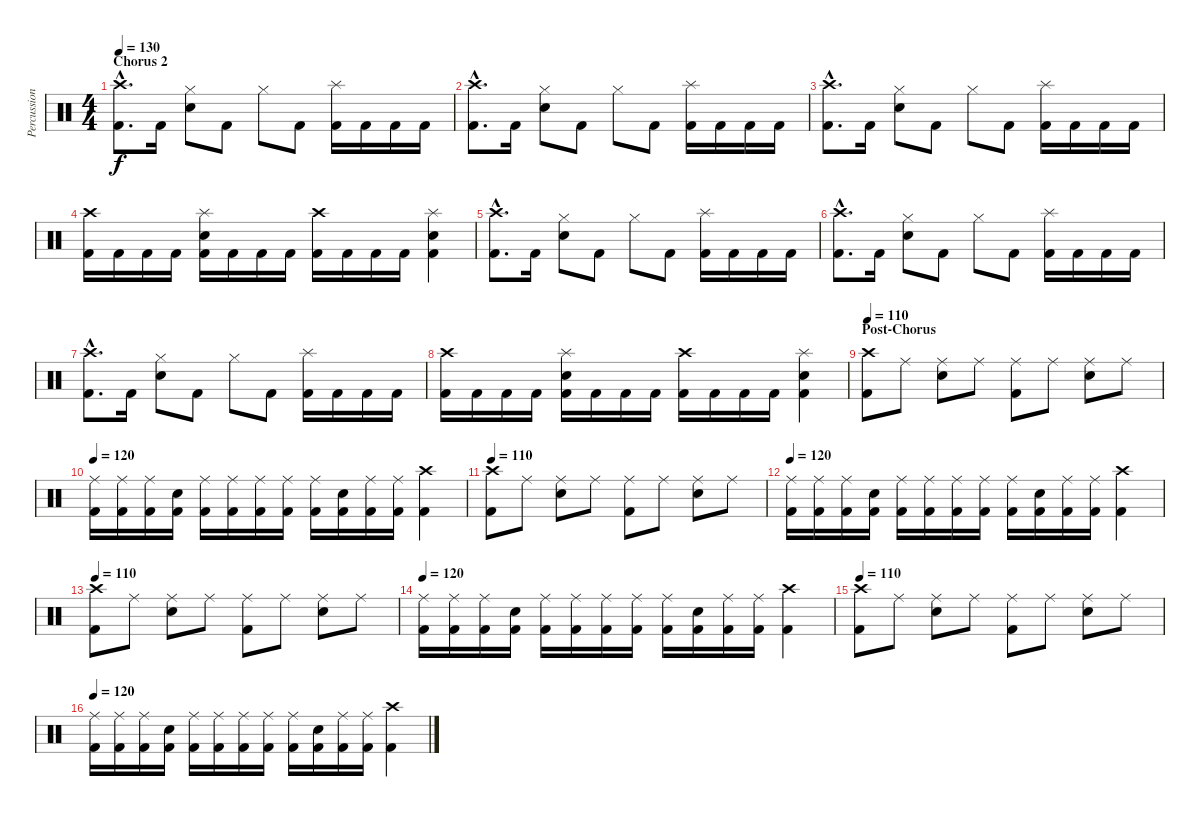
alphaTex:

\track ("Percussions" "Percussion") {instrument percussion}
\staff {score}
\articulation defaults
\ts (4 4)
\section ("" "Chorus 2")
\tempo 130
\clef neutral
\ks c
("Crash high (hit)"{hac} "Kick (hit) 2"{hac}).8{d dy f} "Kick (hit) 2".16 ("Hi-Hat (closed)" "Electric Snare (hit)").8 "Kick (hit) 2".8 "Hi-Hat (closed)".8 "Kick (hit) 2".8 ("Splash (hit)" "Kick (hit) 2").16 "Kick (hit) 2".16 "Kick (hit) 2".16 "Kick (hit) 2".16 |
("Crash high (hit)"{hac} "Kick (hit) 2"{hac}).8{d} "Kick (hit) 2".16 ("Hi-Hat (closed)" "Electric Snare (hit)").8 "Kick (hit) 2".8 "Hi-Hat (closed)".8 "Kick (hit) 2".8 ("Splash (hit)" "Kick (hit) 2").16 "Kick (hit) 2".16 "Kick (hit) 2".16 "Kick (hit) 2".16 |
("Crash high (hit)"{hac} "Kick (hit) 2"{hac}).8{d} "Kick (hit) 2".16 ("Hi-Hat (closed)" "Electric Snare (hit)").8 "Kick (hit) 2".8 "Hi-Hat (closed)".8 "Kick (hit) 2".8 ("Splash (hit)" "Kick (hit) 2").16 "Kick (hit) 2".16 "Kick (hit) 2".16 "Kick (hit) 2".16 |
("Crash high (hit)" "Kick (hit) 2").16 "Kick (hit) 2".16 "Kick (hit) 2".16 "Kick (hit) 2".16 ("Splash (hit)" "Electric Snare (hit)" "Kick (hit) 2").16 "Kick (hit) 2".16 "Kick (hit) 2".16 "Kick (hit) 2".16 ("Crash high (hit)" "Kick (hit) 2").16 "Kick (hit) 2".16 "Kick (hit) 2".16 "Kick (hit) 2".16 ("Splash (hit)" "Electric Snare (hit)" "Kick (hit) 2").4 |
("Crash high (hit)"{hac} "Kick (hit) 2"{hac}).8{d} "Kick (hit) 2".16 ("Hi-Hat (closed)" "Electric Snare (hit)").8 "Kick (hit) 2".8 "Hi-Hat (closed)".8 "Kick (hit) 2".8 ("Splash (hit)" "Kick (hit) 2").16 "Kick (hit) 2".16 "Kick (hit) 2".16 "Kick (hit) 2".16 |
("Crash high (hit)"{hac} "Kick (hit) 2"{hac}).8{d} "Kick (hit) 2".16 ("Hi-Hat (closed)" "Electric Snare (hit)").8 "Kick (hit) 2".8 "Hi-Hat (closed)".8 "Kick (hit) 2".8 ("Splash (hit)" "Kick (hit) 2").16 "Kick (hit) 2".16 "Kick (hit) 2".16 "Kick (hit) 2".16 |
("Crash high (hit)"{hac} "Kick (hit) 2"{hac}).8{d} "Kick (hit) 2".16 ("Hi-Hat (closed)" "Electric Snare (hit)").8 "Kick (hit) 2".8 "Hi-Hat (closed)".8 "Kick (hit) 2".8 ("Splash (hit)" "Kick (hit) 2").16 "Kick (hit) 2".16 "Kick (hit) 2".16 "Kick (hit) 2".16 |
("Crash high (hit)" "Kick (hit) 2").16 "Kick (hit) 2".16 "Kick (hit) 2".16 "Kick (hit) 2".16 ("Splash (hit)" "Electric Snare (hit)" "Kick (hit) 2").16 "Kick (hit) 2".16 "Kick (hit) 2".16 "Kick (hit) 2".16 ("Crash high (hit)" "Kick (hit) 2").16 "Kick (hit) 2".16 "Kick (hit) 2".16 "Kick (hit) 2".16 ("Splash (hit)" "Electric Snare (hit)" "Kick (hit) 2").4 |
\section ("" "Post-Chorus")
\tempo 110
("Crash high (hit)" "Kick (hit) 2").8 "Ride (middle)".8 ("Ride (middle)" "Electric Snare (hit)").8 "Ride (middle)".8 ("Ride (middle)" "Kick (hit) 2").8 "Ride (middle)".8 ("Ride (middle)" "Electric Snare (hit)").8 "Ride (middle)".8 |
\tempo 120
("Ride (middle)" "Kick (hit) 2").16 ("Ride (middle)" "Kick (hit) 2").16 ("Ride (middle)" "Kick (hit) 2").16 ("Electric Snare (hit)" "Kick (hit) 2").16 ("Ride (middle)" "Kick (hit) 2").16 ("Ride (middle)" "Kick (hit) 2").16 ("Ride (middle)" "Kick (hit) 2").16 ("Ride (middle)" "Kick (hit) 2").16 ("Ride (middle)" "Kick (hit) 2").16 ("Electric Snare (hit)" "Kick (hit) 2").16 ("Ride (middle)" "Kick (hit) 2").16 ("Ride (middle)" "Kick (hit) 2").16 ("Crash high (hit)" "Kick (hit) 2").4 |
\tempo 110
("Crash high (hit)" "Kick (hit) 2").8 "Ride (middle)".8 ("Ride (middle)" "Electric Snare (hit)").8 "Ride (middle)".8 ("Ride (middle)" "Kick (hit) 2").8 "Ride (middle)".8 ("Ride (middle)" "Electric Snare (hit)").8 "Ride (middle)".8 |
\tempo 120
("Ride (middle)" "Kick (hit) 2").16 ("Ride (middle)" "Kick (hit) 2").16 ("Ride (middle)" "Kick (hit) 2").16 ("Electric Snare (hit)" "Kick (hit) 2").16 ("Ride (middle)" "Kick (hit) 2").16 ("Ride (middle)" "Kick (hit) 2").16 ("Ride (middle)" "Kick (hit) 2").16 ("Ride (middle)" "Kick (hit) 2").16 ("Ride (middle)" "Kick (hit) 2").16 ("Electric Snare (hit)" "Kick (hit) 2").16 ("Ride (middle)" "Kick (hit) 2").16 ("Ride (middle)" "Kick (hit) 2").16 ("Crash high (hit)" "Kick (hit) 2").4 |
\tempo 110
("Crash high (hit)" "Kick (hit) 2").8 "Ride (middle)".8 ("Ride (middle)" "Electric Snare (hit)").8 "Ride (middle)".8 ("Ride (middle)" "Kick (hit) 2").8 "Ride (middle)".8 ("Ride (middle)" "Electric Snare (hit)").8 "Ride (middle)".8 |
\tempo 120
("Ride (middle)" "Kick (hit) 2").16 ("Ride (middle)" "Kick (hit) 2").16 ("Ride (middle)" "Kick (hit) 2").16 ("Electric Snare (hit)" "Kick (hit) 2").16 ("Ride (middle)" "Kick (hit) 2").16 ("Ride (middle)" "Kick (hit) 2").16 ("Ride (middle)" "Kick (hit) 2").16 ("Ride (middle)" "Kick (hit) 2").16 ("Ride (middle)" "Kick (hit) 2").16 ("Electric Snare (hit)" "Kick (hit) 2").16 ("Ride (middle)" "Kick (hit) 2").16 ("Ride (middle)" "Kick (hit) 2").16 ("Crash high (hit)" "Kick (hit) 2").4 |
\tempo 110
("Crash high (hit)" "Kick (hit) 2").8 "Ride (middle)".8 ("Ride (middle)" "Electric Snare (hit)").8 "Ride (middle)".8 ("Ride (middle)" "Kick (hit) 2").8 "Ride (middle)".8 ("Ride (middle)" "Electric Snare (hit)").8 "Ride (middle)".8 |
\tempo 120
("Ride (middle)" "Kick (hit) 2").16 ("Ride (middle)" "Kick (hit) 2").16 ("Ride (middle)" "Kick (hit) 2").16 ("Electric Snare (hit)" "Kick (hit) 2").16 ("Ride (middle)" "Kick (hit) 2").16 ("Ride (middle)" "Kick (hit) 2").16 ("Ride (middle)" "Kick (hit) 2").16 ("Ride (middle)" "Kick (hit) 2").16 ("Ride (middle)" "Kick (hit) 2").16 ("Electric Snare (hit)" "Kick (hit) 2").16 ("Ride (middle)" "Kick (hit) 2").16 ("Ride (middle)" "Kick (hit) 2").16 ("Crash high (hit)" "Kick (hit) 2").4
